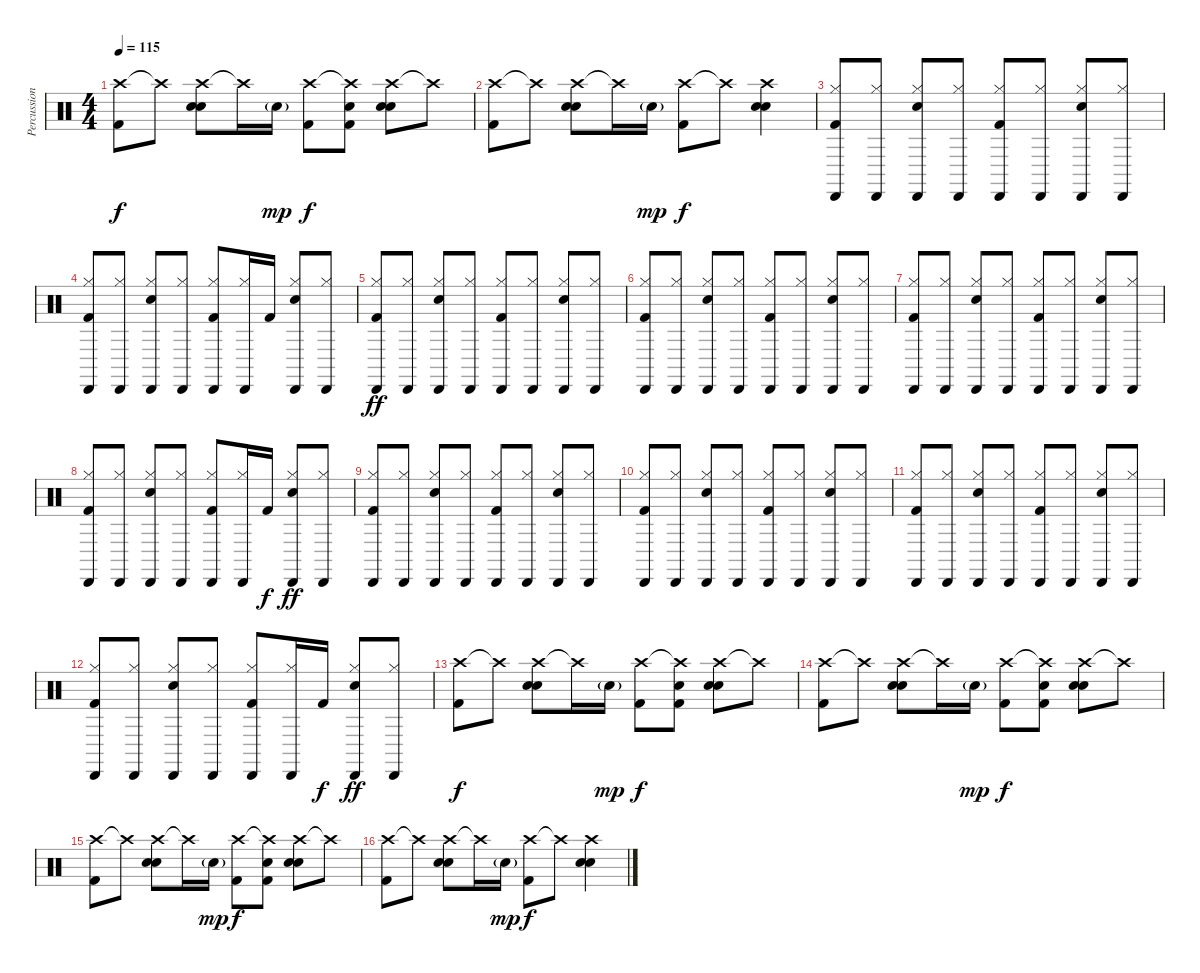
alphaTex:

\track ("Percussion" "Percussion") {instrument percussion}
\staff {score}
\articulation defaults
\ts (4 4)
\tempo 115
\clef neutral
\ks c
("Crash high (hit)" "Kick (hit) 2").8{dy f} "Crash high (hit)"{t}.8 ("Crash high (hit)" "Hand Clap (hit)" "Snare (hit) 2").8 "Crash high (hit)"{t}.16 "Snare (hit) 2"{g}.16{dy mp} ("Crash high (hit)" "Kick (hit) 2").8{dy f} ("Crash high (hit)"{t} "Hand Clap (hit)" "Kick (hit) 2").8 ("Crash high (hit)" "Hand Clap (hit)" "Snare (hit) 2").8 "Crash high (hit)"{t}.8 |
("Crash high (hit)" "Kick (hit) 2").8 "Crash high (hit)"{t}.8 ("Crash high (hit)" "Hand Clap (hit)" "Snare (hit) 2").8 "Crash high (hit)"{t}.16 "Snare (hit) 2"{g}.16{dy mp} ("Crash high (hit)" "Kick (hit) 2").8{dy f} "Crash high (hit)"{t}.8 ("Crash high (hit)" "Hand Clap (hit)" "Snare (hit) 2").4 |
("Hi-Hat (closed)" "Cabasa (hit)" "Kick (hit) 2").8 ("Hi-Hat (closed)" "Cabasa (hit)").8 ("Hi-Hat (closed)" "Cabasa (hit)" "Snare (hit) 2").8 ("Hi-Hat (closed)" "Cabasa (hit)").8 ("Hi-Hat (closed)" "Cabasa (hit)" "Kick (hit) 2").8 ("Hi-Hat (closed)" "Cabasa (hit)").8 ("Hi-Hat (closed)" "Cabasa (hit)" "Snare (hit) 2").8 ("Hi-Hat (closed)" "Cabasa (hit)").8 |
("Hi-Hat (closed)" "Cabasa (hit)" "Kick (hit) 2").8 ("Hi-Hat (closed)" "Cabasa (hit)").8 ("Hi-Hat (closed)" "Cabasa (hit)" "Snare (hit) 2").8 ("Hi-Hat (closed)" "Cabasa (hit)").8 ("Hi-Hat (closed)" "Cabasa (hit)" "Kick (hit) 2").8 ("Hi-Hat (closed)" "Cabasa (hit)").16 "Kick (hit) 2".16 ("Hi-Hat (closed)" "Cabasa (hit)" "Snare (hit) 2").8 ("Hi-Hat (closed)" "Cabasa (hit)").8 |
("Hi-Hat (closed)" "Cabasa (hit)" "Kick (hit) 2").8{dy ff} ("Hi-Hat (closed)" "Cabasa (hit)").8 ("Hi-Hat (closed)" "Cabasa (hit)" "Snare (hit) 2").8 ("Hi-Hat (closed)" "Cabasa (hit)").8 ("Hi-Hat (closed)" "Cabasa (hit)" "Kick (hit) 2").8 ("Hi-Hat (closed)" "Cabasa (hit)").8 ("Hi-Hat (closed)" "Cabasa (hit)" "Snare (hit) 2").8 ("Hi-Hat (closed)" "Cabasa (hit)").8 |
("Hi-Hat (closed)" "Cabasa (hit)" "Kick (hit) 2").8 ("Hi-Hat (closed)" "Cabasa (hit)").8 ("Hi-Hat (closed)" "Cabasa (hit)" "Snare (hit) 2").8 ("Hi-Hat (closed)" "Cabasa (hit)").8 ("Hi-Hat (closed)" "Cabasa (hit)" "Kick (hit) 2").8 ("Hi-Hat (closed)" "Cabasa (hit)").8 ("Hi-Hat (closed)" "Cabasa (hit)" "Snare (hit) 2").8 ("Hi-Hat (closed)" "Cabasa (hit)").8 |
("Hi-Hat (closed)" "Cabasa (hit)" "Kick (hit) 2").8 ("Hi-Hat (closed)" "Cabasa (hit)").8 ("Hi-Hat (closed)" "Cabasa (hit)" "Snare (hit) 2").8 ("Hi-Hat (closed)" "Cabasa (hit)").8 ("Hi-Hat (closed)" "Cabasa (hit)" "Kick (hit) 2").8 ("Hi-Hat (closed)" "Cabasa (hit)").8 ("Hi-Hat (closed)" "Cabasa (hit)" "Snare (hit) 2").8 ("Hi-Hat (closed)" "Cabasa (hit)").8 |
("Hi-Hat (closed)" "Cabasa (hit)" "Kick (hit) 2").8 ("Hi-Hat (closed)" "Cabasa (hit)").8 ("Hi-Hat (closed)" "Cabasa (hit)" "Snare (hit) 2").8 ("Hi-Hat (closed)" "Cabasa (hit)").8 ("Hi-Hat (closed)" "Cabasa (hit)" "Kick (hit) 2").8 ("Hi-Hat (closed)" "Cabasa (hit)").16 "Kick (hit) 2".16{dy f} ("Hi-Hat (closed)" "Cabasa (hit)" "Snare (hit) 2").8{dy ff} ("Hi-Hat (closed)" "Cabasa (hit)").8 |
("Hi-Hat (closed)" "Cabasa (hit)" "Kick (hit) 2").8 ("Hi-Hat (closed)" "Cabasa (hit)").8 ("Hi-Hat (closed)" "Cabasa (hit)" "Snare (hit) 2").8 ("Hi-Hat (closed)" "Cabasa (hit)").8 ("Hi-Hat (closed)" "Cabasa (hit)" "Kick (hit) 2").8 ("Hi-Hat (closed)" "Cabasa (hit)").8 ("Hi-Hat (closed)" "Cabasa (hit)" "Snare (hit) 2").8 ("Hi-Hat (closed)" "Cabasa (hit)").8 |
("Hi-Hat (closed)" "Cabasa (hit)" "Kick (hit) 2").8 ("Hi-Hat (closed)" "Cabasa (hit)").8 ("Hi-Hat (closed)" "Cabasa (hit)" "Snare (hit) 2").8 ("Hi-Hat (closed)" "Cabasa (hit)").8 ("Hi-Hat (closed)" "Cabasa (hit)" "Kick (hit) 2").8 ("Hi-Hat (closed)" "Cabasa (hit)").8 ("Hi-Hat (closed)" "Cabasa (hit)" "Snare (hit) 2").8 ("Hi-Hat (closed)" "Cabasa (hit)").8 |
("Hi-Hat (closed)" "Cabasa (hit)" "Kick (hit) 2").8 ("Hi-Hat (closed)" "Cabasa (hit)").8 ("Hi-Hat (closed)" "Cabasa (hit)" "Snare (hit) 2").8 ("Hi-Hat (closed)" "Cabasa (hit)").8 ("Hi-Hat (closed)" "Cabasa (hit)" "Kick (hit) 2").8 ("Hi-Hat (closed)" "Cabasa (hit)").8 ("Hi-Hat (closed)" "Cabasa (hit)" "Snare (hit) 2").8 ("Hi-Hat (closed)" "Cabasa (hit)").8 |
("Hi-Hat (closed)" "Cabasa (hit)" "Kick (hit) 2").8 ("Hi-Hat (closed)" "Cabasa (hit)").8 ("Hi-Hat (closed)" "Cabasa (hit)" "Snare (hit) 2").8 ("Hi-Hat (closed)" "Cabasa (hit)").8 ("Hi-Hat (closed)" "Cabasa (hit)" "Kick (hit) 2").8 ("Hi-Hat (closed)" "Cabasa (hit)").16 "Kick (hit) 2".16{dy f} ("Hi-Hat (closed)" "Cabasa (hit)" "Snare (hit) 2").8{dy ff} ("Hi-Hat (closed)" "Cabasa (hit)").8 |
("Crash high (hit)" "Kick (hit) 2").8{dy f} "Crash high (hit)"{t}.8 ("Crash high (hit)" "Hand Clap (hit)" "Snare (hit) 2").8 "Crash high (hit)"{t}.16 "Snare (hit) 2"{g}.16{dy mp} ("Crash high (hit)" "Kick (hit) 2").8{dy f} ("Crash high (hit)"{t} "Hand Clap (hit)" "Kick (hit) 2").8 ("Crash high (hit)" "Hand Clap (hit)" "Snare (hit) 2").8 "Crash high (hit)"{t}.8 |
("Crash high (hit)" "Kick (hit) 2").8 "Crash high (hit)"{t}.8 ("Crash high (hit)" "Hand Clap (hit)" "Snare (hit) 2").8 "Crash high (hit)"{t}.16 "Snare (hit) 2"{g}.16{dy mp} ("Crash high (hit)" "Kick (hit) 2").8{dy f} ("Crash high (hit)"{t} "Hand Clap (hit)" "Kick (hit) 2").8 ("Crash high (hit)" "Hand Clap (hit)" "Snare (hit) 2").8 "Crash high (hit)"{t}.8 |
("Crash high (hit)" "Kick (hit) 2").8 "Crash high (hit)"{t}.8 ("Crash high (hit)" "Hand Clap (hit)" "Snare (hit) 2").8 "Crash high (hit)"{t}.16 "Snare (hit) 2"{g}.16{dy mp} ("Crash high (hit)" "Kick (hit) 2").8{dy f} ("Crash high (hit)"{t} "Hand Clap (hit)" "Kick (hit) 2").8 ("Crash high (hit)" "Hand Clap (hit)" "Snare (hit) 2").8 "Crash high (hit)"{t}.8 |
("Crash high (hit)" "Kick (hit) 2").8 "Crash high (hit)"{t}.8 ("Crash high (hit)" "Hand Clap (hit)" "Snare (hit) 2").8 "Crash high (hit)"{t}.16 "Snare (hit) 2"{g}.16{dy mp} ("Crash high (hit)" "Kick (hit) 2").8{dy f} "Crash high (hit)"{t}.8 ("Crash high (hit)" "Hand Clap (hit)" "Snare (hit) 2").4
